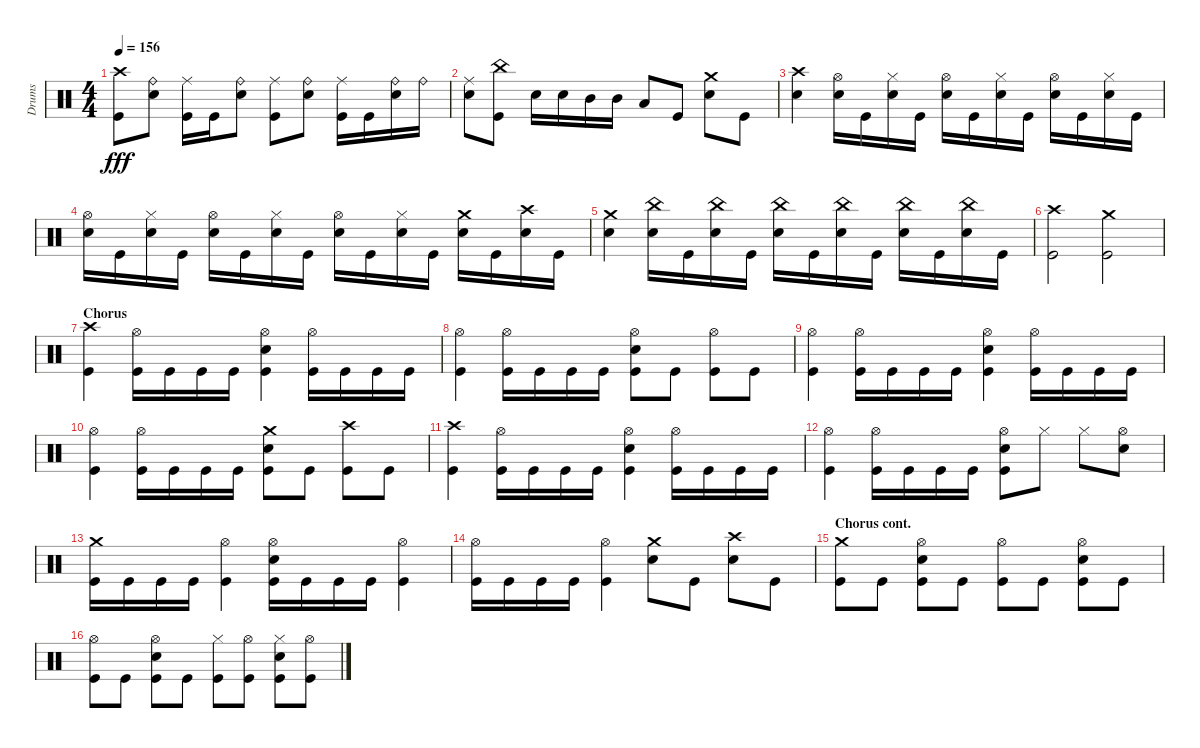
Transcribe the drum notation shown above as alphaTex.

\track ("Drums" "Drums") {instrument percussion}
\staff {score}
\articulation defaults
\ts (4 4)
\tempo 156
\clef neutral
\ks aminor
("Kick (hit)" "Crash high (hit)").8{dy fff} ("Snare (hit) 2" "Ride (bell)").8 ("Ride (middle)" "Kick (hit)").16 "Kick (hit)".16 ("Snare (hit) 2" "Ride (bell)").8 ("Kick (hit)" "Ride (middle)").8 ("Snare (hit) 2" "Ride (bell)").8 ("Kick (hit)" "Ride (middle)").16 "Kick (hit)".16 ("Ride (bell)" "Snare (hit) 2").16 "Ride (bell)".16 |
("Snare (hit) 2" "Ride (middle)").8 ("Kick (hit)" "China (hit)").8 "Snare (hit) 2".16 "Snare (hit) 2".16 "Mid Tom (hit)".16 "Mid Tom (hit)".16 "Low Tom (hit)".8 "Kick (hit)".8 ("Crash medium (hit)" "Snare (hit) 2").8 "Kick (hit)".8 |
("Snare (hit) 2" "Crash high (hit)").4 ("Snare (hit) 2" "Hi-Hat (open)").16 "Kick (hit)".16 ("Hi-Hat (closed)" "Snare (hit) 2").16 "Kick (hit)".16 ("Snare (hit) 2" "Hi-Hat (open)").16 "Kick (hit)".16 ("Snare (hit) 2" "Hi-Hat (closed)").16 "Kick (hit)".16 ("Hi-Hat (open)" "Snare (hit) 2").16 "Kick (hit)".16 ("Snare (hit) 2" "Hi-Hat (closed)").16 "Kick (hit)".16 |
("Hi-Hat (open)" "Snare (hit) 2").16 "Kick (hit)".16 ("Hi-Hat (closed)" "Snare (hit) 2").16 "Kick (hit)".16 ("Snare (hit) 2" "Hi-Hat (open)").16 "Kick (hit)".16 ("Hi-Hat (closed)" "Snare (hit) 2").16 "Kick (hit)".16 ("Snare (hit) 2" "Hi-Hat (open)").16 "Kick (hit)".16 ("Snare (hit) 2" "Hi-Hat (closed)").16 "Kick (hit)".16 ("Crash medium (hit)" "Snare (hit) 2").16 "Kick (hit)".16 ("Snare (hit) 2" "Crash high (hit)").16 "Kick (hit)".16 |
("Crash medium (hit)" "Snare (hit) 2").4 ("China (hit)" "Snare (hit) 2").16 "Kick (hit)".16 ("Snare (hit) 2" "China (hit)").16 "Kick (hit)".16 ("China (hit)" "Snare (hit) 2").16 "Kick (hit)".16 ("China (hit)" "Snare (hit) 2").16 "Kick (hit)".16 ("China (hit)" "Snare (hit) 2").16 "Kick (hit)".16 ("China (hit)" "Snare (hit) 2").16 "Kick (hit)".16 |
("Kick (hit)" "Crash high (hit)").2 ("Crash medium (hit)" "Kick (hit)").2 |
\section ("" "Chorus")
("Kick (hit)" "Crash high (hit)").4 ("Hi-Hat (open)" "Kick (hit)").16 "Kick (hit)".16 "Kick (hit)".16 "Kick (hit)".16 ("Hi-Hat (open)" "Snare (hit) 2" "Kick (hit)").4 ("Kick (hit)" "Hi-Hat (open)").16 "Kick (hit)".16 "Kick (hit)".16 "Kick (hit)".16 |
("Hi-Hat (open)" "Kick (hit)").4 ("Hi-Hat (open)" "Kick (hit)").16 "Kick (hit)".16 "Kick (hit)".16 "Kick (hit)".16 ("Kick (hit)" "Snare (hit) 2" "Hi-Hat (open)").8 "Kick (hit)".8 ("Hi-Hat (open)" "Kick (hit)").8 "Kick (hit)".8 |
("Kick (hit)" "Hi-Hat (open)").4 ("Kick (hit)" "Hi-Hat (open)").16 "Kick (hit)".16 "Kick (hit)".16 "Kick (hit)".16 ("Snare (hit) 2" "Hi-Hat (open)" "Kick (hit)").4 ("Hi-Hat (open)" "Kick (hit)").16 "Kick (hit)".16 "Kick (hit)".16 "Kick (hit)".16 |
("Hi-Hat (open)" "Kick (hit)").4 ("Kick (hit)" "Hi-Hat (open)").16 "Kick (hit)".16 "Kick (hit)".16 "Kick (hit)".16 ("Kick (hit)" "Snare (hit) 2" "Crash medium (hit)").8 "Kick (hit)".8 ("Kick (hit)" "Crash high (hit)").8 "Kick (hit)".8 |
("Crash high (hit)" "Kick (hit)").4 ("Hi-Hat (open)" "Kick (hit)").16 "Kick (hit)".16 "Kick (hit)".16 "Kick (hit)".16 ("Kick (hit)" "Snare (hit) 2" "Hi-Hat (open)").4 ("Kick (hit)" "Hi-Hat (open)").16 "Kick (hit)".16 "Kick (hit)".16 "Kick (hit)".16 |
("Hi-Hat (open)" "Kick (hit)").4 ("Hi-Hat (open)" "Kick (hit)").16 "Kick (hit)".16 "Kick (hit)".16 "Kick (hit)".16 ("Kick (hit)" "Snare (hit) 2" "Hi-Hat (open)").8 "Hi-Hat (closed)".8 "Hi-Hat (closed)".8 ("Hi-Hat (open)" "Snare (hit) 2").8 |
("Crash medium (hit)" "Kick (hit)").16 "Kick (hit)".16 "Kick (hit)".16 "Kick (hit)".16 ("Kick (hit)" "Hi-Hat (open)").4 ("Snare (hit) 2" "Hi-Hat (open)" "Kick (hit)").16 "Kick (hit)".16 "Kick (hit)".16 "Kick (hit)".16 ("Hi-Hat (open)" "Kick (hit)").4 |
("Kick (hit)" "Hi-Hat (open)").16 "Kick (hit)".16 "Kick (hit)".16 "Kick (hit)".16 ("Hi-Hat (open)" "Kick (hit)").4 ("Crash medium (hit)" "Snare (hit) 2").8 "Kick (hit)".8 ("Crash high (hit)" "Snare (hit) 2").8 "Kick (hit)".8 |
\section ("" "Chorus cont.")
("Kick (hit)" "Crash medium (hit)").8 "Kick (hit)".8 ("Kick (hit)" "Hi-Hat (open)" "Snare (hit) 2").8 "Kick (hit)".8 ("Hi-Hat (open)" "Kick (hit)").8 "Kick (hit)".8 ("Hi-Hat (open)" "Kick (hit)" "Snare (hit) 2").8 "Kick (hit)".8 |
("Hi-Hat (open)" "Kick (hit)").8 "Kick (hit)".8 ("Hi-Hat (open)" "Kick (hit)" "Snare (hit) 2").8 "Kick (hit)".8 ("Kick (hit)" "Hi-Hat (closed)").8 ("Hi-Hat (open)" "Kick (hit)").8 ("Kick (hit)" "Hi-Hat (closed)" "Snare (hit) 2").8 ("Kick (hit)" "Hi-Hat (open)").8
